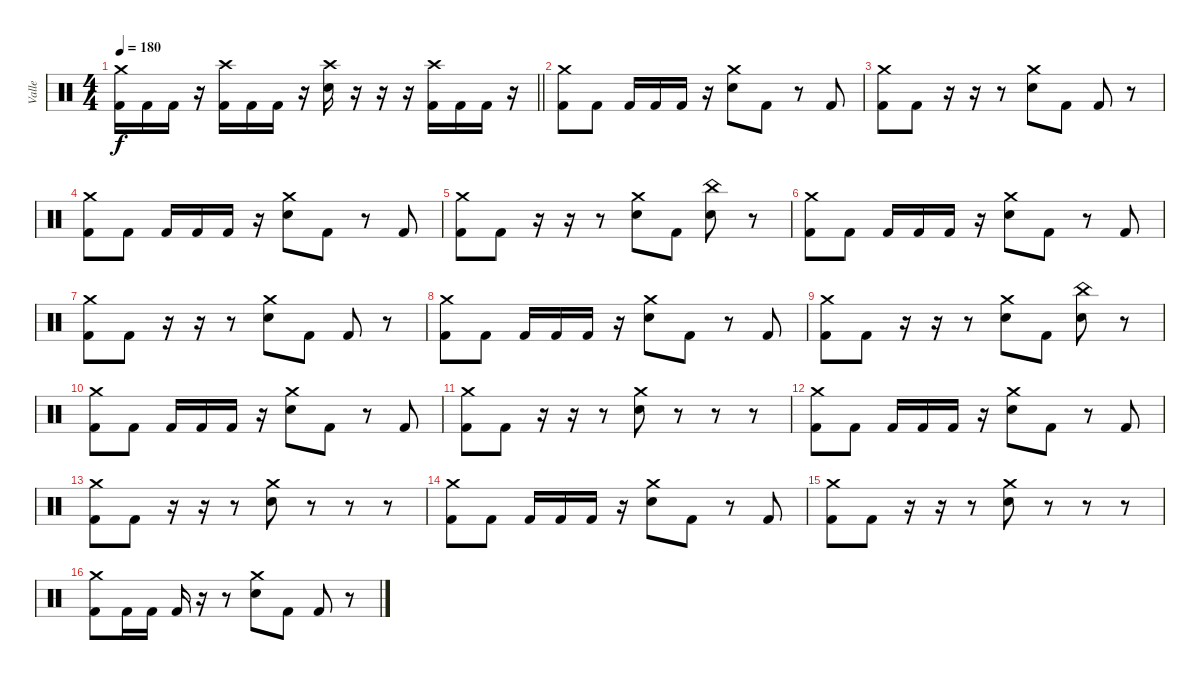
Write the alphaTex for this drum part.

\track ("Valle" "Valle") {instrument percussion}
\staff {score}
\articulation defaults
\ts (4 4)
\tempo 180
\clef neutral
\barLineRight lightlight
\ks c
("Crash medium (hit)" "Kick (hit) 2").16{dy f} "Kick (hit) 2".16 "Kick (hit) 2".16 r.16 ("Crash high (hit)" "Kick (hit) 2").16 "Kick (hit) 2".16 "Kick (hit) 2".16 r.16 ("Crash high (hit)" "Snare (hit) 2").16 r.16 r.16 r.16 ("Crash high (hit)" "Kick (hit) 2").16 "Kick (hit) 2".16 "Kick (hit) 2".16 r.16 |
\section ("" "")
("Crash medium (hit)" "Kick (hit) 2").8 "Kick (hit) 2".8 "Kick (hit) 2".16 "Kick (hit) 2".16 "Kick (hit) 2".16 r.16 ("Crash medium (hit)" "Snare (hit) 2").8 "Kick (hit) 2".8 r.8 "Kick (hit) 2".8 |
("Crash medium (hit)" "Kick (hit) 2").8 "Kick (hit) 2".8 r.16 r.16 r.8 ("Crash medium (hit)" "Snare (hit) 2").8 "Kick (hit) 2".8 "Kick (hit) 2".8 r.8 |
("Crash medium (hit)" "Kick (hit) 2").8 "Kick (hit) 2".8 "Kick (hit) 2".16 "Kick (hit) 2".16 "Kick (hit) 2".16 r.16 ("Crash medium (hit)" "Snare (hit) 2").8 "Kick (hit) 2".8 r.8 "Kick (hit) 2".8 |
("Crash medium (hit)" "Kick (hit) 2").8 "Kick (hit) 2".8 r.16 r.16 r.8 ("Crash medium (hit)" "Snare (hit) 2").8 "Kick (hit) 2".8 ("China (hit)" "Snare (hit) 2").8 r.8 |
("Crash medium (hit)" "Kick (hit) 2").8 "Kick (hit) 2".8 "Kick (hit) 2".16 "Kick (hit) 2".16 "Kick (hit) 2".16 r.16 ("Crash medium (hit)" "Snare (hit) 2").8 "Kick (hit) 2".8 r.8 "Kick (hit) 2".8 |
("Crash medium (hit)" "Kick (hit) 2").8 "Kick (hit) 2".8 r.16 r.16 r.8 ("Crash medium (hit)" "Snare (hit) 2").8 "Kick (hit) 2".8 "Kick (hit) 2".8 r.8 |
("Crash medium (hit)" "Kick (hit) 2").8 "Kick (hit) 2".8 "Kick (hit) 2".16 "Kick (hit) 2".16 "Kick (hit) 2".16 r.16 ("Crash medium (hit)" "Snare (hit) 2").8 "Kick (hit) 2".8 r.8 "Kick (hit) 2".8 |
("Crash medium (hit)" "Kick (hit) 2").8 "Kick (hit) 2".8 r.16 r.16 r.8 ("Crash medium (hit)" "Snare (hit) 2").8 "Kick (hit) 2".8 ("China (hit)" "Snare (hit) 2").8 r.8 |
("Crash medium (hit)" "Kick (hit) 2").8 "Kick (hit) 2".8 "Kick (hit) 2".16 "Kick (hit) 2".16 "Kick (hit) 2".16 r.16 ("Crash medium (hit)" "Snare (hit) 2").8 "Kick (hit) 2".8 r.8 "Kick (hit) 2".8 |
("Crash medium (hit)" "Kick (hit) 2").8 "Kick (hit) 2".8 r.16 r.16 r.8 ("Crash medium (hit)" "Snare (hit) 2").8 r.8 r.8 r.8 |
("Crash medium (hit)" "Kick (hit) 2").8 "Kick (hit) 2".8 "Kick (hit) 2".16 "Kick (hit) 2".16 "Kick (hit) 2".16 r.16 ("Crash medium (hit)" "Snare (hit) 2").8 "Kick (hit) 2".8 r.8 "Kick (hit) 2".8 |
("Crash medium (hit)" "Kick (hit) 2").8 "Kick (hit) 2".8 r.16 r.16 r.8 ("Crash medium (hit)" "Snare (hit) 2").8 r.8 r.8 r.8 |
("Crash medium (hit)" "Kick (hit) 2").8 "Kick (hit) 2".8 "Kick (hit) 2".16 "Kick (hit) 2".16 "Kick (hit) 2".16 r.16 ("Crash medium (hit)" "Snare (hit) 2").8 "Kick (hit) 2".8 r.8 "Kick (hit) 2".8 |
("Crash medium (hit)" "Kick (hit) 2").8 "Kick (hit) 2".8 r.16 r.16 r.8 ("Crash medium (hit)" "Snare (hit) 2").8 r.8 r.8 r.8 |
("Crash medium (hit)" "Kick (hit) 2").8 "Kick (hit) 2".16 "Kick (hit) 2".16 "Kick (hit) 2".16 r.16 r.8 ("Crash medium (hit)" "Snare (hit) 2").8 "Kick (hit) 2".8 "Kick (hit) 2".8 r.8
